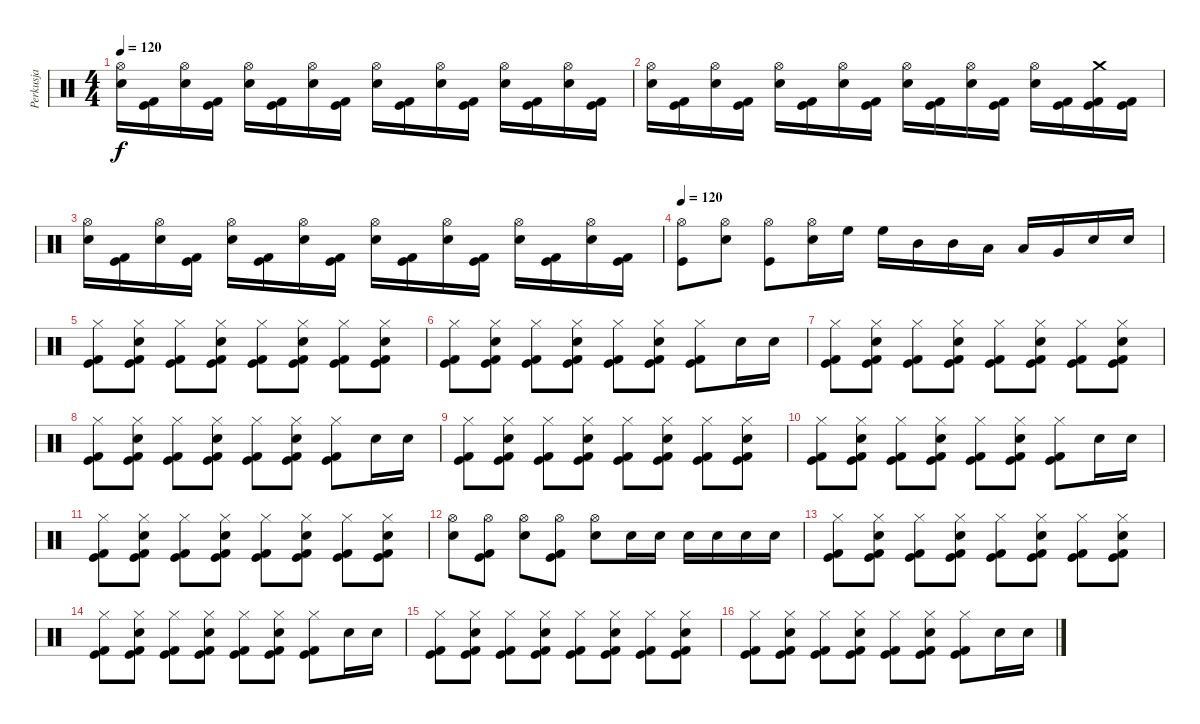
\track ("Perkusja" "Perkusja") {instrument percussion}
\staff {score}
\articulation defaults
\ts (4 4)
\tempo 120
\clef neutral
\ks c
("Hi-Hat (open)" "Electric Snare (hit)").16{dy f} ("Kick (hit)" "Kick (hit) 2").16 ("Hi-Hat (open)" "Electric Snare (hit)").16 ("Kick (hit)" "Kick (hit) 2").16 ("Hi-Hat (open)" "Electric Snare (hit)").16 ("Kick (hit)" "Kick (hit) 2").16 ("Hi-Hat (open)" "Electric Snare (hit)").16 ("Kick (hit)" "Kick (hit) 2").16 ("Hi-Hat (open)" "Electric Snare (hit)").16 ("Kick (hit)" "Kick (hit) 2").16 ("Hi-Hat (open)" "Electric Snare (hit)").16 ("Kick (hit)" "Kick (hit) 2").16 ("Hi-Hat (open)" "Electric Snare (hit)").16 ("Kick (hit)" "Kick (hit) 2").16 ("Hi-Hat (open)" "Electric Snare (hit)").16 ("Kick (hit)" "Kick (hit) 2").16 |
("Hi-Hat (open)" "Electric Snare (hit)").16 ("Kick (hit)" "Kick (hit) 2").16 ("Hi-Hat (open)" "Electric Snare (hit)").16 ("Kick (hit)" "Kick (hit) 2").16 ("Hi-Hat (open)" "Electric Snare (hit)").16 ("Kick (hit)" "Kick (hit) 2").16 ("Hi-Hat (open)" "Electric Snare (hit)").16 ("Kick (hit)" "Kick (hit) 2").16 ("Hi-Hat (open)" "Electric Snare (hit)").16 ("Kick (hit)" "Kick (hit) 2").16 ("Hi-Hat (open)" "Electric Snare (hit)").16 ("Kick (hit)" "Kick (hit) 2").16 ("Hi-Hat (open)" "Electric Snare (hit)").16 ("Kick (hit)" "Kick (hit) 2").16 ("Crash medium (hit)" "Kick (hit) 2" "Kick (hit)").16 ("Kick (hit) 2" "Kick (hit)").16 |
("Hi-Hat (open)" "Electric Snare (hit)").16 ("Kick (hit)" "Kick (hit) 2").16 ("Hi-Hat (open)" "Electric Snare (hit)").16 ("Kick (hit)" "Kick (hit) 2").16 ("Hi-Hat (open)" "Electric Snare (hit)").16 ("Kick (hit)" "Kick (hit) 2").16 ("Hi-Hat (open)" "Electric Snare (hit)").16 ("Kick (hit)" "Kick (hit) 2").16 ("Hi-Hat (open)" "Electric Snare (hit)").16 ("Kick (hit)" "Kick (hit) 2").16 ("Hi-Hat (open)" "Electric Snare (hit)").16 ("Kick (hit)" "Kick (hit) 2").16 ("Hi-Hat (open)" "Electric Snare (hit)").16 ("Kick (hit)" "Kick (hit) 2").16 ("Hi-Hat (open)" "Electric Snare (hit)").16 ("Kick (hit)" "Kick (hit) 2").16 |
\tempo 120
("Hi-Hat (open)" "Kick (hit)").8 ("Hi-Hat (open)" "Snare (hit) 2").8 ("Hi-Hat (open)" "Kick (hit)").8 ("Hi-Hat (open)" "Snare (hit) 2").16 "High Floor Tom (hit)".16 "High Floor Tom (hit)".16 "Mid Tom (hit)".16 "Mid Tom (hit)".16 "Low Tom (hit)".16 "Low Tom (hit)".16 "Very Low Tom (hit)".16 "Electric Snare (hit)".16 "Snare (hit) 2".16 |
("Hi-Hat (closed)" "Kick (hit)" "Kick (hit) 2").8 ("Hi-Hat (closed)" "Snare (hit) 2" "Kick (hit)" "Kick (hit) 2").8 ("Hi-Hat (closed)" "Kick (hit)" "Kick (hit) 2").8 ("Hi-Hat (closed)" "Snare (hit) 2" "Kick (hit)" "Kick (hit) 2").8 ("Hi-Hat (closed)" "Kick (hit)" "Kick (hit) 2").8 ("Hi-Hat (closed)" "Snare (hit) 2" "Kick (hit)" "Kick (hit) 2").8 ("Hi-Hat (closed)" "Kick (hit)" "Kick (hit) 2").8 ("Hi-Hat (closed)" "Snare (hit) 2" "Kick (hit)" "Kick (hit) 2").8 |
("Hi-Hat (closed)" "Kick (hit)" "Kick (hit) 2").8 ("Hi-Hat (closed)" "Snare (hit) 2" "Kick (hit)" "Kick (hit) 2").8 ("Hi-Hat (closed)" "Kick (hit)" "Kick (hit) 2").8 ("Hi-Hat (closed)" "Snare (hit) 2" "Kick (hit)" "Kick (hit) 2").8 ("Hi-Hat (closed)" "Kick (hit)" "Kick (hit) 2").8 ("Hi-Hat (closed)" "Snare (hit) 2" "Kick (hit)" "Kick (hit) 2").8 ("Hi-Hat (closed)" "Kick (hit)" "Kick (hit) 2").8 "Snare (hit) 2".16 "Snare (hit) 2".16 |
("Hi-Hat (closed)" "Kick (hit)" "Kick (hit) 2").8 ("Hi-Hat (closed)" "Snare (hit) 2" "Kick (hit)" "Kick (hit) 2").8 ("Hi-Hat (closed)" "Kick (hit)" "Kick (hit) 2").8 ("Hi-Hat (closed)" "Snare (hit) 2" "Kick (hit)" "Kick (hit) 2").8 ("Hi-Hat (closed)" "Kick (hit)" "Kick (hit) 2").8 ("Hi-Hat (closed)" "Snare (hit) 2" "Kick (hit)" "Kick (hit) 2").8 ("Hi-Hat (closed)" "Kick (hit)" "Kick (hit) 2").8 ("Hi-Hat (closed)" "Snare (hit) 2" "Kick (hit)" "Kick (hit) 2").8 |
("Hi-Hat (closed)" "Kick (hit)" "Kick (hit) 2").8 ("Hi-Hat (closed)" "Snare (hit) 2" "Kick (hit)" "Kick (hit) 2").8 ("Hi-Hat (closed)" "Kick (hit)" "Kick (hit) 2").8 ("Hi-Hat (closed)" "Snare (hit) 2" "Kick (hit)" "Kick (hit) 2").8 ("Hi-Hat (closed)" "Kick (hit)" "Kick (hit) 2").8 ("Hi-Hat (closed)" "Snare (hit) 2" "Kick (hit)" "Kick (hit) 2").8 ("Hi-Hat (closed)" "Kick (hit)" "Kick (hit) 2").8 "Snare (hit) 2".16 "Snare (hit) 2".16 |
("Hi-Hat (closed)" "Kick (hit)" "Kick (hit) 2").8 ("Hi-Hat (closed)" "Snare (hit) 2" "Kick (hit)" "Kick (hit) 2").8 ("Hi-Hat (closed)" "Kick (hit)" "Kick (hit) 2").8 ("Hi-Hat (closed)" "Snare (hit) 2" "Kick (hit)" "Kick (hit) 2").8 ("Hi-Hat (closed)" "Kick (hit)" "Kick (hit) 2").8 ("Hi-Hat (closed)" "Snare (hit) 2" "Kick (hit)" "Kick (hit) 2").8 ("Hi-Hat (closed)" "Kick (hit)" "Kick (hit) 2").8 ("Hi-Hat (closed)" "Snare (hit) 2" "Kick (hit)" "Kick (hit) 2").8 |
("Hi-Hat (closed)" "Kick (hit)" "Kick (hit) 2").8 ("Hi-Hat (closed)" "Snare (hit) 2" "Kick (hit)" "Kick (hit) 2").8 ("Hi-Hat (closed)" "Kick (hit)" "Kick (hit) 2").8 ("Hi-Hat (closed)" "Snare (hit) 2" "Kick (hit)" "Kick (hit) 2").8 ("Hi-Hat (closed)" "Kick (hit)" "Kick (hit) 2").8 ("Hi-Hat (closed)" "Snare (hit) 2" "Kick (hit)" "Kick (hit) 2").8 ("Hi-Hat (closed)" "Kick (hit)" "Kick (hit) 2").8 "Snare (hit) 2".16 "Snare (hit) 2".16 |
("Hi-Hat (closed)" "Kick (hit)" "Kick (hit) 2").8 ("Hi-Hat (closed)" "Snare (hit) 2" "Kick (hit)" "Kick (hit) 2").8 ("Hi-Hat (closed)" "Kick (hit)" "Kick (hit) 2").8 ("Hi-Hat (closed)" "Snare (hit) 2" "Kick (hit)" "Kick (hit) 2").8 ("Hi-Hat (closed)" "Kick (hit)" "Kick (hit) 2").8 ("Hi-Hat (closed)" "Snare (hit) 2" "Kick (hit)" "Kick (hit) 2").8 ("Hi-Hat (closed)" "Kick (hit)" "Kick (hit) 2").8 ("Hi-Hat (closed)" "Snare (hit) 2" "Kick (hit)" "Kick (hit) 2").8 |
("Hi-Hat (open)" "Electric Snare (hit)").8 ("Hi-Hat (open)" "Kick (hit)" "Kick (hit) 2").8 ("Hi-Hat (open)" "Electric Snare (hit)").8 ("Hi-Hat (open)" "Kick (hit)" "Kick (hit) 2").8 ("Hi-Hat (open)" "Electric Snare (hit)").8 "Snare (hit) 2".16 "Snare (hit) 2".16 "Snare (hit) 2".16 "Snare (hit) 2".16 "Snare (hit) 2".16 "Snare (hit) 2".16 |
("Hi-Hat (closed)" "Kick (hit)" "Kick (hit) 2").8 ("Hi-Hat (closed)" "Snare (hit) 2" "Kick (hit)" "Kick (hit) 2").8 ("Hi-Hat (closed)" "Kick (hit)" "Kick (hit) 2").8 ("Hi-Hat (closed)" "Snare (hit) 2" "Kick (hit)" "Kick (hit) 2").8 ("Hi-Hat (closed)" "Kick (hit)" "Kick (hit) 2").8 ("Hi-Hat (closed)" "Snare (hit) 2" "Kick (hit)" "Kick (hit) 2").8 ("Hi-Hat (closed)" "Kick (hit)" "Kick (hit) 2").8 ("Hi-Hat (closed)" "Snare (hit) 2" "Kick (hit)" "Kick (hit) 2").8 |
("Hi-Hat (closed)" "Kick (hit)" "Kick (hit) 2").8 ("Hi-Hat (closed)" "Snare (hit) 2" "Kick (hit)" "Kick (hit) 2").8 ("Hi-Hat (closed)" "Kick (hit)" "Kick (hit) 2").8 ("Hi-Hat (closed)" "Snare (hit) 2" "Kick (hit)" "Kick (hit) 2").8 ("Hi-Hat (closed)" "Kick (hit)" "Kick (hit) 2").8 ("Hi-Hat (closed)" "Snare (hit) 2" "Kick (hit)" "Kick (hit) 2").8 ("Hi-Hat (closed)" "Kick (hit)" "Kick (hit) 2").8 "Snare (hit) 2".16 "Snare (hit) 2".16 |
("Hi-Hat (closed)" "Kick (hit)" "Kick (hit) 2").8 ("Hi-Hat (closed)" "Snare (hit) 2" "Kick (hit)" "Kick (hit) 2").8 ("Hi-Hat (closed)" "Kick (hit)" "Kick (hit) 2").8 ("Hi-Hat (closed)" "Snare (hit) 2" "Kick (hit)" "Kick (hit) 2").8 ("Hi-Hat (closed)" "Kick (hit)" "Kick (hit) 2").8 ("Hi-Hat (closed)" "Snare (hit) 2" "Kick (hit)" "Kick (hit) 2").8 ("Hi-Hat (closed)" "Kick (hit)" "Kick (hit) 2").8 ("Hi-Hat (closed)" "Snare (hit) 2" "Kick (hit)" "Kick (hit) 2").8 |
("Hi-Hat (closed)" "Kick (hit)" "Kick (hit) 2").8 ("Hi-Hat (closed)" "Snare (hit) 2" "Kick (hit)" "Kick (hit) 2").8 ("Hi-Hat (closed)" "Kick (hit)" "Kick (hit) 2").8 ("Hi-Hat (closed)" "Snare (hit) 2" "Kick (hit)" "Kick (hit) 2").8 ("Hi-Hat (closed)" "Kick (hit)" "Kick (hit) 2").8 ("Hi-Hat (closed)" "Snare (hit) 2" "Kick (hit)" "Kick (hit) 2").8 ("Hi-Hat (closed)" "Kick (hit)" "Kick (hit) 2").8 "Snare (hit) 2".16 "Snare (hit) 2".16
